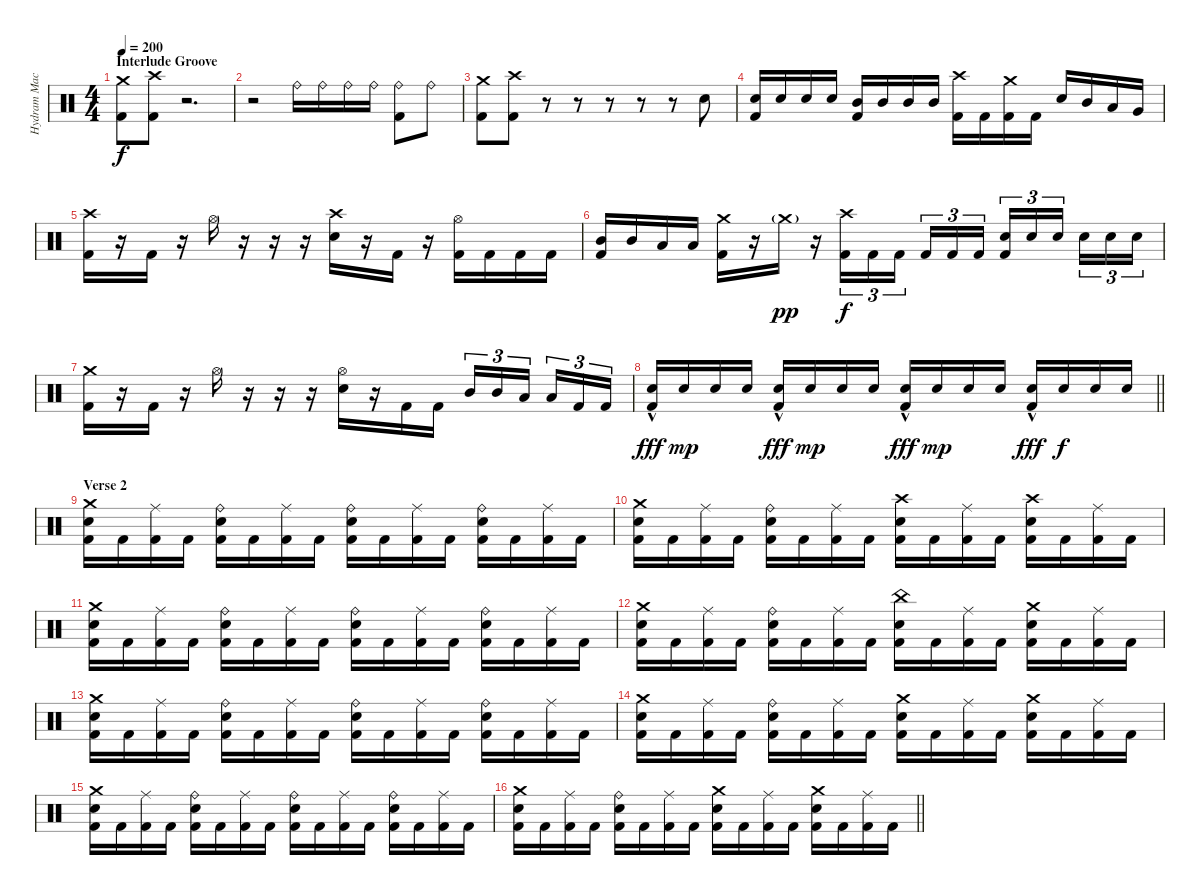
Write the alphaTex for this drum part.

\track ("Hydram Machine" "Hydram Mac") {instrument percussion}
\staff {score}
\articulation defaults
\ts (4 4)
\section ("" "Interlude Groove")
\tempo 200
\clef neutral
\ks c
("Crash medium (hit)" "Kick (hit) 2").8{dy f} ("Crash high (hit)" "Kick (hit) 2").8 r.2{d} |
r.2 "Ride (bell)".16 "Ride (bell)".16 "Ride (bell)".16 "Ride (bell)".16 ("Ride (bell)" "Kick (hit) 2").8 "Ride (bell)".8 |
("Crash medium (hit)" "Kick (hit) 2").8 ("Crash high (hit)" "Kick (hit) 2").8 r.8 r.8 r.8 r.8 r.8 "Electric Snare (hit)".8 |
("Electric Snare (hit)" "Kick (hit) 2").16 "Electric Snare (hit)".16 "Electric Snare (hit)".16 "Electric Snare (hit)".16 ("Mid Tom (hit)" "Kick (hit) 2").16 "Mid Tom (hit)".16 "Mid Tom (hit)".16 "Mid Tom (hit)".16 ("Crash high (hit)" "Kick (hit) 2").16 "Kick (hit) 2".16 ("Crash medium (hit)" "Kick (hit) 2").16 "Kick (hit) 2".16 "Electric Snare (hit)".16 "Mid Tom (hit)".16 "Low Tom (hit)".16 "Very Low Tom (hit)".16 |
("Crash high (hit)" "Kick (hit) 2").16 r.16 "Kick (hit) 2".16 r.16 "Hi-Hat (open)".16 r.16 r.16 r.16 ("Crash high (hit)" "Electric Snare (hit)").16 r.16 "Kick (hit) 2".16 r.16 ("Hi-Hat (open)" "Kick (hit) 2").16 "Kick (hit) 2".16 "Kick (hit) 2".16 "Kick (hit) 2".16 |
("Mid Tom (hit)" "Kick (hit) 2").16 "Mid Tom (hit)".16 "Low Tom (hit)".16 "Low Tom (hit)".16 ("Crash medium (hit)" "Kick (hit) 2").16 r.16 "Crash medium (hit)"{g}.16{dy pp} r.16 ("Crash high (hit)" "Kick (hit) 2").16{tu (3 2) dy f} "Kick (hit) 2".16{tu (3 2)} "Kick (hit) 2".16{tu (3 2) beam splitsecondary} "Kick (hit) 2".16{tu (3 2)} "Kick (hit) 2".16{tu (3 2)} "Kick (hit) 2".16{tu (3 2)} ("Electric Snare (hit)" "Kick (hit) 2").16{tu (3 2)} "Electric Snare (hit)".16{tu (3 2)} "Electric Snare (hit)".16{tu (3 2) beam splitsecondary} "Electric Snare (hit)".16{tu (3 2)} "Electric Snare (hit)".16{tu (3 2)} "Electric Snare (hit)".16{tu (3 2)} |
("Crash medium (hit)" "Kick (hit) 2").16 r.16 "Kick (hit) 2".16 r.16 "Hi-Hat (open)".16 r.16 r.16 r.16 ("Hi-Hat (open)" "Electric Snare (hit)").16 r.16 "Kick (hit) 2".16 "Kick (hit) 2".16 "Mid Tom (hit)".16{tu (3 2)} "Mid Tom (hit)".16{tu (3 2)} "Low Tom (hit)".16{tu (3 2) beam splitsecondary} "Low Tom (hit)".16{tu (3 2)} "Kick (hit) 2".16{tu (3 2)} "Kick (hit) 2".16{tu (3 2)} |
\barLineRight lightlight
("Electric Snare (hit)"{hac} "Kick (hit) 2").16{dy fff} "Electric Snare (hit)".16{dy mp} "Electric Snare (hit)".16 "Electric Snare (hit)".16 ("Electric Snare (hit)"{hac} "Kick (hit) 2").16{dy fff} "Electric Snare (hit)".16{dy mp} "Electric Snare (hit)".16 "Electric Snare (hit)".16 ("Electric Snare (hit)"{hac} "Kick (hit) 2").16{dy fff} "Electric Snare (hit)".16{dy mp} "Electric Snare (hit)".16 "Electric Snare (hit)".16 ("Electric Snare (hit)"{hac} "Kick (hit) 2").16{dy fff} "Electric Snare (hit)".16{dy f} "Electric Snare (hit)".16 "Electric Snare (hit)".16 |
\section ("" "Verse 2")
("Crash medium (hit)" "Electric Snare (hit)" "Kick (hit) 2").16 "Kick (hit) 2".16 ("Ride (middle)" "Kick (hit) 2").16 "Kick (hit) 2".16 ("Ride (bell)" "Electric Snare (hit)" "Kick (hit) 2").16 "Kick (hit) 2".16 ("Ride (middle)" "Kick (hit) 2").16 "Kick (hit) 2".16 ("Ride (bell)" "Electric Snare (hit)" "Kick (hit) 2").16 "Kick (hit) 2".16 ("Ride (middle)" "Kick (hit) 2").16 "Kick (hit) 2".16 ("Ride (bell)" "Electric Snare (hit)" "Kick (hit) 2").16 "Kick (hit) 2".16 ("Ride (middle)" "Kick (hit) 2").16 "Kick (hit) 2".16 |
("Crash medium (hit)" "Electric Snare (hit)" "Kick (hit) 2").16 "Kick (hit) 2".16 ("Ride (middle)" "Kick (hit) 2").16 "Kick (hit) 2".16 ("Ride (bell)" "Electric Snare (hit)" "Kick (hit) 2").16 "Kick (hit) 2".16 ("Ride (middle)" "Kick (hit) 2").16 "Kick (hit) 2".16 ("Crash high (hit)" "Electric Snare (hit)" "Kick (hit) 2").16 "Kick (hit) 2".16 ("Ride (middle)" "Kick (hit) 2").16 "Kick (hit) 2".16 ("Crash high (hit)" "Electric Snare (hit)" "Kick (hit) 2").16 "Kick (hit) 2".16 ("Ride (middle)" "Kick (hit) 2").16 "Kick (hit) 2".16 |
("Crash medium (hit)" "Electric Snare (hit)" "Kick (hit) 2").16 "Kick (hit) 2".16 ("Ride (middle)" "Kick (hit) 2").16 "Kick (hit) 2".16 ("Ride (bell)" "Electric Snare (hit)" "Kick (hit) 2").16 "Kick (hit) 2".16 ("Ride (middle)" "Kick (hit) 2").16 "Kick (hit) 2".16 ("Ride (bell)" "Electric Snare (hit)" "Kick (hit) 2").16 "Kick (hit) 2".16 ("Ride (middle)" "Kick (hit) 2").16 "Kick (hit) 2".16 ("Ride (bell)" "Electric Snare (hit)" "Kick (hit) 2").16 "Kick (hit) 2".16 ("Ride (middle)" "Kick (hit) 2").16 "Kick (hit) 2".16 |
("Crash medium (hit)" "Electric Snare (hit)" "Kick (hit) 2").16 "Kick (hit) 2".16 ("Ride (middle)" "Kick (hit) 2").16 "Kick (hit) 2".16 ("Ride (bell)" "Electric Snare (hit)" "Kick (hit) 2").16 "Kick (hit) 2".16 ("Ride (middle)" "Kick (hit) 2").16 "Kick (hit) 2".16 ("China (hit)" "Electric Snare (hit)" "Kick (hit) 2").16 "Kick (hit) 2".16 ("Ride (middle)" "Kick (hit) 2").16 "Kick (hit) 2".16 ("Crash medium (hit)" "Electric Snare (hit)" "Kick (hit) 2").16 "Kick (hit) 2".16 ("Ride (middle)" "Kick (hit) 2").16 "Kick (hit) 2".16 |
("Crash medium (hit)" "Electric Snare (hit)" "Kick (hit) 2").16 "Kick (hit) 2".16 ("Ride (middle)" "Kick (hit) 2").16 "Kick (hit) 2".16 ("Ride (bell)" "Electric Snare (hit)" "Kick (hit) 2").16 "Kick (hit) 2".16 ("Ride (middle)" "Kick (hit) 2").16 "Kick (hit) 2".16 ("Ride (bell)" "Electric Snare (hit)" "Kick (hit) 2").16 "Kick (hit) 2".16 ("Ride (middle)" "Kick (hit) 2").16 "Kick (hit) 2".16 ("Ride (bell)" "Electric Snare (hit)" "Kick (hit) 2").16 "Kick (hit) 2".16 ("Ride (middle)" "Kick (hit) 2").16 "Kick (hit) 2".16 |
("Crash medium (hit)" "Electric Snare (hit)" "Kick (hit) 2").16 "Kick (hit) 2".16 ("Ride (middle)" "Kick (hit) 2").16 "Kick (hit) 2".16 ("Ride (bell)" "Electric Snare (hit)" "Kick (hit) 2").16 "Kick (hit) 2".16 ("Ride (middle)" "Kick (hit) 2").16 "Kick (hit) 2".16 ("Crash medium (hit)" "Electric Snare (hit)" "Kick (hit) 2").16 "Kick (hit) 2".16 ("Ride (middle)" "Kick (hit) 2").16 "Kick (hit) 2".16 ("Crash medium (hit)" "Electric Snare (hit)" "Kick (hit) 2").16 "Kick (hit) 2".16 ("Ride (middle)" "Kick (hit) 2").16 "Kick (hit) 2".16 |
("Crash medium (hit)" "Electric Snare (hit)" "Kick (hit) 2").16 "Kick (hit) 2".16 ("Ride (middle)" "Kick (hit) 2").16 "Kick (hit) 2".16 ("Ride (bell)" "Electric Snare (hit)" "Kick (hit) 2").16 "Kick (hit) 2".16 ("Ride (middle)" "Kick (hit) 2").16 "Kick (hit) 2".16 ("Ride (bell)" "Electric Snare (hit)" "Kick (hit) 2").16 "Kick (hit) 2".16 ("Ride (middle)" "Kick (hit) 2").16 "Kick (hit) 2".16 ("Ride (bell)" "Electric Snare (hit)" "Kick (hit) 2").16 "Kick (hit) 2".16 ("Ride (middle)" "Kick (hit) 2").16 "Kick (hit) 2".16 |
\barLineRight lightlight
("Crash medium (hit)" "Electric Snare (hit)" "Kick (hit) 2").16 "Kick (hit) 2".16 ("Ride (middle)" "Kick (hit) 2").16 "Kick (hit) 2".16 ("Ride (bell)" "Electric Snare (hit)" "Kick (hit) 2").16 "Kick (hit) 2".16 ("Ride (middle)" "Kick (hit) 2").16 "Kick (hit) 2".16 ("Crash medium (hit)" "Electric Snare (hit)" "Kick (hit) 2").16 "Kick (hit) 2".16 ("Ride (middle)" "Kick (hit) 2").16 "Kick (hit) 2".16 ("Crash medium (hit)" "Electric Snare (hit)" "Kick (hit) 2").16 "Kick (hit) 2".16 ("Ride (middle)" "Kick (hit) 2").16 "Kick (hit) 2".16
